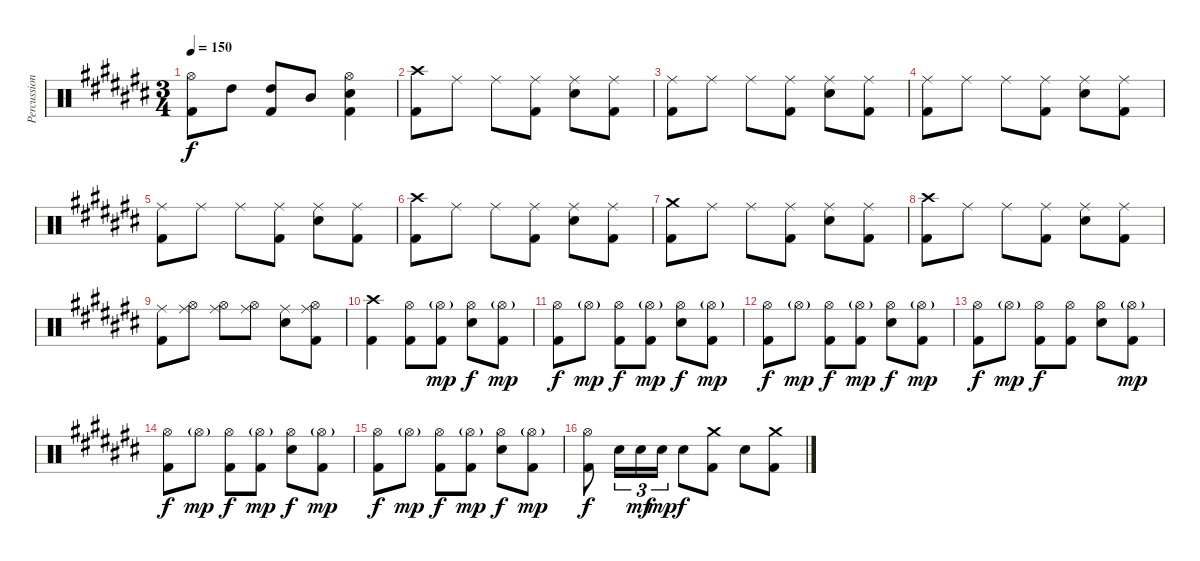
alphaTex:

\track ("Percussion" "Percussion") {instrument percussion}
\staff {score}
\articulation defaults
\ts (3 4)
\tempo 150
\clef neutral
\ks c#
("Hi-Hat (open)" "Kick (hit) 2").8{dy f} "High Tom (hit)".8 ("High Tom (hit)" "Kick (hit) 2").8 "Mid Tom (hit)".8 ("Hi-Hat (open)" "Electric Snare (hit)" "Kick (hit) 2").4 |
("Crash high (hit)" "Kick (hit) 2").8 "Ride (middle)".8 "Ride (middle)".8 ("Ride (middle)" "Kick (hit) 2").8 ("Ride (middle)" "Electric Snare (hit)").8 ("Ride (middle)" "Kick (hit) 2").8 |
("Ride (middle)" "Kick (hit) 2").8 "Ride (middle)".8 "Ride (middle)".8 ("Ride (middle)" "Kick (hit) 2").8 ("Ride (middle)" "Electric Snare (hit)").8 ("Ride (middle)" "Kick (hit) 2").8 |
("Ride (middle)" "Kick (hit) 2").8 "Ride (middle)".8 "Ride (middle)".8 ("Ride (middle)" "Kick (hit) 2").8 ("Ride (middle)" "Electric Snare (hit)").8 ("Ride (middle)" "Kick (hit) 2").8 |
("Ride (middle)" "Kick (hit) 2").8 "Ride (middle)".8 "Ride (middle)".8 ("Ride (middle)" "Kick (hit) 2").8 ("Ride (middle)" "Electric Snare (hit)").8 ("Ride (middle)" "Kick (hit) 2").8 |
("Crash high (hit)" "Kick (hit) 2").8 "Ride (middle)".8 "Ride (middle)".8 ("Ride (middle)" "Kick (hit) 2").8 ("Ride (middle)" "Electric Snare (hit)").8 ("Ride (middle)" "Kick (hit) 2").8 |
("Crash medium (hit)" "Kick (hit) 2").8 "Ride (middle)".8 "Ride (middle)".8 ("Ride (middle)" "Kick (hit) 2").8 ("Ride (middle)" "Electric Snare (hit)").8 ("Ride (middle)" "Kick (hit) 2").8 |
("Crash high (hit)" "Kick (hit) 2").8 "Ride (middle)".8 "Ride (middle)".8 ("Ride (middle)" "Kick (hit) 2").8 ("Ride (middle)" "Electric Snare (hit)").8 ("Ride (middle)" "Kick (hit) 2").8 |
("Ride (middle)" "Kick (hit) 2").8 ("Ride (middle)" "Hi-Hat (open)").8 ("Ride (middle)" "Hi-Hat (open)").8 ("Ride (middle)" "Hi-Hat (open)").8 ("Ride (middle)" "Electric Snare (hit)").8 ("Ride (middle)" "Hi-Hat (open)" "Kick (hit) 2").8 |
("Crash high (hit)" "Kick (hit) 2").4 ("Hi-Hat (open)" "Kick (hit) 2").8 ("Hi-Hat (open)"{g} "Kick (hit) 2").8{dy mp} ("Hi-Hat (open)" "Electric Snare (hit)").8{dy f} ("Hi-Hat (open)"{g} "Kick (hit) 2").8{dy mp} |
("Hi-Hat (open)" "Kick (hit) 2").8{dy f} "Hi-Hat (open)"{g}.8{dy mp} ("Hi-Hat (open)" "Kick (hit) 2").8{dy f} ("Hi-Hat (open)"{g} "Kick (hit) 2").8{dy mp} ("Hi-Hat (open)" "Electric Snare (hit)").8{dy f} ("Hi-Hat (open)"{g} "Kick (hit) 2").8{dy mp} |
("Hi-Hat (open)" "Kick (hit) 2").8{dy f} "Hi-Hat (open)"{g}.8{dy mp} ("Hi-Hat (open)" "Kick (hit) 2").8{dy f} ("Hi-Hat (open)"{g} "Kick (hit) 2").8{dy mp} ("Hi-Hat (open)" "Electric Snare (hit)").8{dy f} ("Hi-Hat (open)"{g} "Kick (hit) 2").8{dy mp} |
("Hi-Hat (open)" "Kick (hit) 2").8{dy f} "Hi-Hat (open)"{g}.8{dy mp} ("Hi-Hat (open)" "Kick (hit) 2").8{dy f} ("Hi-Hat (open)" "Kick (hit) 2").8 ("Hi-Hat (open)" "Electric Snare (hit)").8 ("Hi-Hat (open)"{g} "Kick (hit) 2").8{dy mp} |
("Hi-Hat (open)" "Kick (hit) 2").8{dy f} "Hi-Hat (open)"{g}.8{dy mp} ("Hi-Hat (open)" "Kick (hit) 2").8{dy f} ("Hi-Hat (open)"{g} "Kick (hit) 2").8{dy mp} ("Hi-Hat (open)" "Electric Snare (hit)").8{dy f} ("Hi-Hat (open)"{g} "Kick (hit) 2").8{dy mp} |
("Hi-Hat (open)" "Kick (hit) 2").8{dy f} "Hi-Hat (open)"{g}.8{dy mp} ("Hi-Hat (open)" "Kick (hit) 2").8{dy f} ("Hi-Hat (open)"{g} "Kick (hit) 2").8{dy mp} ("Hi-Hat (open)" "Electric Snare (hit)").8{dy f} ("Hi-Hat (open)"{g} "Kick (hit) 2").8{dy mp} |
("Hi-Hat (open)" "Kick (hit) 2").8{dy f} "Electric Snare (hit)".16{tu (3 2)} "Electric Snare (hit)".16{tu (3 2) dy mf} "Electric Snare (hit)".16{tu (3 2) dy mp} "Electric Snare (hit)".8{dy f} ("Crash medium (hit)" "Kick (hit) 2").8 "Electric Snare (hit)".8 ("Crash medium (hit)" "Kick (hit) 2").8
